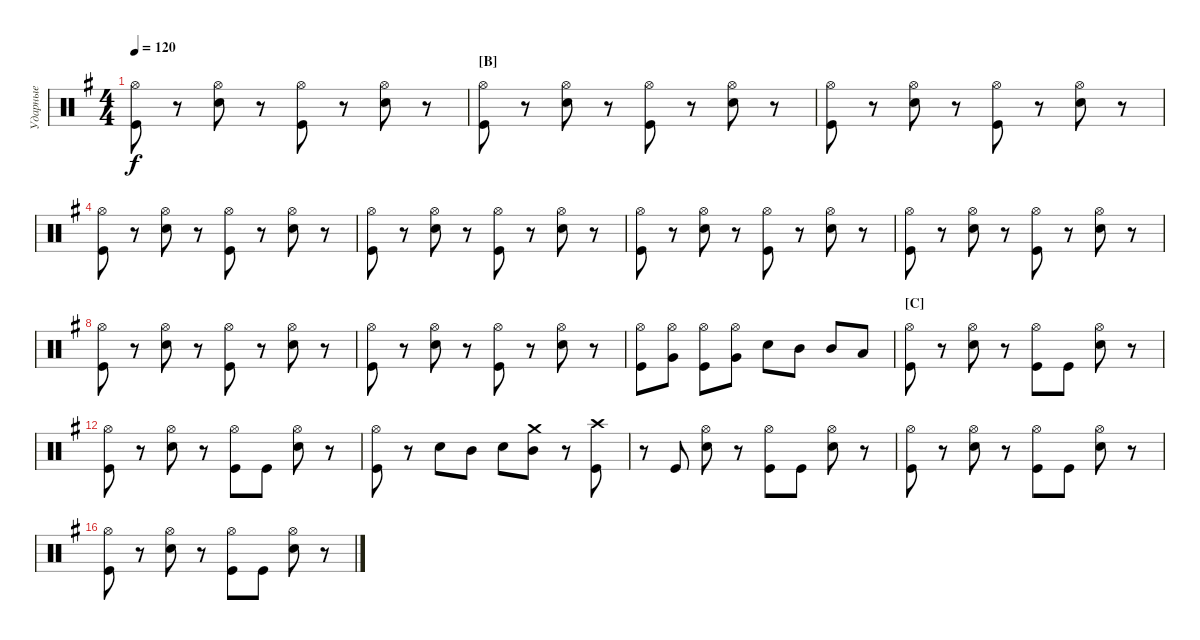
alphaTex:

\defaultSystemsLayout 4
\bracketExtendMode groupsimilarinstruments
\multiTrackTrackNamePolicy hidden
\firstSystemTrackNameMode fullname
\otherSystemsTrackNameMode fullname
\otherSystemsTrackNameOrientation horizontal
\defaultBarNumberDisplay FirstOfSystem
\track ("Ударные" "Drums") {multiBarRest instrument percussion}
\staff {score}
\articulation defaults
\ts (4 4)
\tempo 120
\clef neutral
\ks eminor
("Kick (hit)" "Hi-Hat (open)").8{dy f} r.8 ("Snare (hit) 2" "Hi-Hat (open)").8 r.8 ("Kick (hit)" "Hi-Hat (open)").8 r.8 ("Snare (hit) 2" "Hi-Hat (open)").8 r.8 |
\section ("B" "")
("Kick (hit)" "Hi-Hat (open)").8 r.8 ("Snare (hit) 2" "Hi-Hat (open)").8 r.8 ("Kick (hit)" "Hi-Hat (open)").8 r.8 ("Snare (hit) 2" "Hi-Hat (open)").8 r.8 |
("Kick (hit)" "Hi-Hat (open)").8 r.8 ("Snare (hit) 2" "Hi-Hat (open)").8 r.8 ("Kick (hit)" "Hi-Hat (open)").8 r.8 ("Snare (hit) 2" "Hi-Hat (open)").8 r.8 |
("Kick (hit)" "Hi-Hat (open)").8 r.8 ("Snare (hit) 2" "Hi-Hat (open)").8 r.8 ("Kick (hit)" "Hi-Hat (open)").8 r.8 ("Snare (hit) 2" "Hi-Hat (open)").8 r.8 |
("Kick (hit)" "Hi-Hat (open)").8 r.8 ("Snare (hit) 2" "Hi-Hat (open)").8 r.8 ("Kick (hit)" "Hi-Hat (open)").8 r.8 ("Snare (hit) 2" "Hi-Hat (open)").8 r.8 |
("Kick (hit)" "Hi-Hat (open)").8 r.8 ("Snare (hit) 2" "Hi-Hat (open)").8 r.8 ("Kick (hit)" "Hi-Hat (open)").8 r.8 ("Snare (hit) 2" "Hi-Hat (open)").8 r.8 |
("Kick (hit)" "Hi-Hat (open)").8 r.8 ("Snare (hit) 2" "Hi-Hat (open)").8 r.8 ("Kick (hit)" "Hi-Hat (open)").8 r.8 ("Snare (hit) 2" "Hi-Hat (open)").8 r.8 |
("Kick (hit)" "Hi-Hat (open)").8 r.8 ("Snare (hit) 2" "Hi-Hat (open)").8 r.8 ("Kick (hit)" "Hi-Hat (open)").8 r.8 ("Snare (hit) 2" "Hi-Hat (open)").8 r.8 |
("Kick (hit)" "Hi-Hat (open)").8 r.8 ("Snare (hit) 2" "Hi-Hat (open)").8 r.8 ("Kick (hit)" "Hi-Hat (open)").8 r.8 ("Snare (hit) 2" "Hi-Hat (open)").8 r.8 |
("Kick (hit)" "Hi-Hat (open)").8 ("Very Low Tom (hit)" "Hi-Hat (open)").8 ("Kick (hit)" "Hi-Hat (open)").8 ("Very Low Tom (hit)" "Hi-Hat (open)").8 "Snare (hit) 2".8 "Mid Tom (hit)".8 "Mid Tom (hit)".8 "Low Tom (hit)".8 |
\section ("C" "")
("Kick (hit)" "Hi-Hat (open)").8 r.8 ("Snare (hit) 2" "Hi-Hat (open)").8 r.8 ("Kick (hit)" "Hi-Hat (open)").8 "Kick (hit)".8 ("Snare (hit) 2" "Hi-Hat (open)").8 r.8 |
("Kick (hit)" "Hi-Hat (open)").8 r.8 ("Snare (hit) 2" "Hi-Hat (open)").8 r.8 ("Kick (hit)" "Hi-Hat (open)").8 "Kick (hit)".8 ("Snare (hit) 2" "Hi-Hat (open)").8 r.8 |
("Kick (hit)" "Hi-Hat (open)").8 r.8 "Snare (hit) 2".8 "Mid Tom (hit)".8 "Snare (hit) 2".8 ("Mid Tom (hit)" "Crash medium (hit)").8 r.8 ("Kick (hit)" "Crash high (hit)").8 |
r.8 "Kick (hit)".8 ("Snare (hit) 2" "Hi-Hat (open)").8 r.8 ("Kick (hit)" "Hi-Hat (open)").8 "Kick (hit)".8 ("Snare (hit) 2" "Hi-Hat (open)").8 r.8 |
("Kick (hit)" "Hi-Hat (open)").8 r.8 ("Snare (hit) 2" "Hi-Hat (open)").8 r.8 ("Kick (hit)" "Hi-Hat (open)").8 "Kick (hit)".8 ("Snare (hit) 2" "Hi-Hat (open)").8 r.8 |
("Kick (hit)" "Hi-Hat (open)").8 r.8 ("Snare (hit) 2" "Hi-Hat (open)").8 r.8 ("Kick (hit)" "Hi-Hat (open)").8 "Kick (hit)".8 ("Snare (hit) 2" "Hi-Hat (open)").8 r.8
